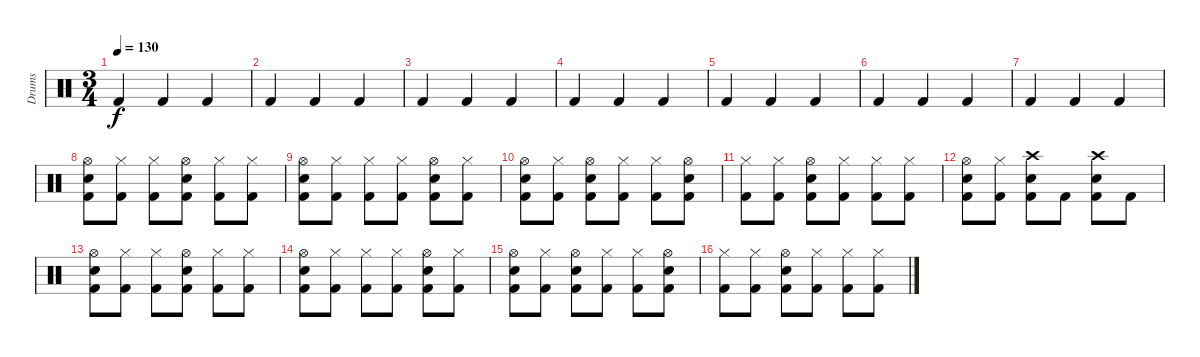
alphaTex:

\track ("Drums" "Drums") {instrument percussion}
\staff {score}
\articulation defaults
\ts (3 4)
\tempo 130
\clef neutral
\ks c "Kick (hit) 2".4{dy f} "Kick (hit) 2".4 "Kick (hit) 2".4
|
"Kick (hit) 2".4 "Kick (hit) 2".4 "Kick (hit) 2".4 |
"Kick (hit) 2".4 "Kick (hit) 2".4 "Kick (hit) 2".4 |
"Kick (hit) 2".4 "Kick (hit) 2".4 "Kick (hit) 2".4 |
"Kick (hit) 2".4 "Kick (hit) 2".4 "Kick (hit) 2".4 |
"Kick (hit) 2".4 "Kick (hit) 2".4 "Kick (hit) 2".4 |
"Kick (hit) 2".4 "Kick (hit) 2".4 "Kick (hit) 2".4 |
("Hi-Hat (open)" "Snare (hit) 2" "Kick (hit) 2").8 ("Hi-Hat (closed)" "Kick (hit) 2").8 ("Hi-Hat (closed)" "Kick (hit) 2").8 ("Hi-Hat (open)" "Snare (hit) 2" "Kick (hit) 2").8 ("Hi-Hat (closed)" "Kick (hit) 2").8 ("Hi-Hat (closed)" "Kick (hit) 2").8 |
("Hi-Hat (open)" "Snare (hit) 2" "Kick (hit) 2").8 ("Hi-Hat (closed)" "Kick (hit) 2").8 ("Hi-Hat (closed)" "Kick (hit) 2").8 ("Hi-Hat (closed)" "Kick (hit) 2").8 ("Hi-Hat (open)" "Snare (hit) 2" "Kick (hit) 2").8 ("Hi-Hat (closed)" "Kick (hit) 2").8 |
("Hi-Hat (open)" "Snare (hit) 2" "Kick (hit) 2").8 ("Hi-Hat (closed)" "Kick (hit) 2").8 ("Hi-Hat (open)" "Snare (hit) 2" "Kick (hit) 2").8 ("Hi-Hat (closed)" "Kick (hit) 2").8 ("Hi-Hat (closed)" "Kick (hit) 2").8 ("Hi-Hat (open)" "Snare (hit) 2" "Kick (hit) 2").8 |
("Hi-Hat (closed)" "Kick (hit) 2").8 ("Hi-Hat (closed)" "Kick (hit) 2").8 ("Hi-Hat (open)" "Snare (hit) 2" "Kick (hit) 2").8 ("Hi-Hat (closed)" "Kick (hit) 2").8 ("Hi-Hat (closed)" "Kick (hit) 2").8 ("Hi-Hat (closed)" "Kick (hit) 2").8 |
("Hi-Hat (open)" "Snare (hit) 2" "Kick (hit) 2").8 ("Hi-Hat (closed)" "Kick (hit) 2").8 ("Crash high (hit)" "Snare (hit) 2" "Kick (hit) 2").8 "Kick (hit) 2".8 ("Crash high (hit)" "Snare (hit) 2" "Kick (hit) 2").8 "Kick (hit) 2".8 |
("Hi-Hat (open)" "Snare (hit) 2" "Kick (hit) 2").8 ("Hi-Hat (closed)" "Kick (hit) 2").8 ("Hi-Hat (closed)" "Kick (hit) 2").8 ("Hi-Hat (open)" "Snare (hit) 2" "Kick (hit) 2").8 ("Hi-Hat (closed)" "Kick (hit) 2").8 ("Hi-Hat (closed)" "Kick (hit) 2").8 |
("Hi-Hat (open)" "Snare (hit) 2" "Kick (hit) 2").8 ("Hi-Hat (closed)" "Kick (hit) 2").8 ("Hi-Hat (closed)" "Kick (hit) 2").8 ("Hi-Hat (closed)" "Kick (hit) 2").8 ("Hi-Hat (open)" "Snare (hit) 2" "Kick (hit) 2").8 ("Hi-Hat (closed)" "Kick (hit) 2").8 |
("Hi-Hat (open)" "Snare (hit) 2" "Kick (hit) 2").8 ("Hi-Hat (closed)" "Kick (hit) 2").8 ("Hi-Hat (open)" "Snare (hit) 2" "Kick (hit) 2").8 ("Hi-Hat (closed)" "Kick (hit) 2").8 ("Hi-Hat (closed)" "Kick (hit) 2").8 ("Hi-Hat (open)" "Snare (hit) 2" "Kick (hit) 2").8 |
("Hi-Hat (closed)" "Kick (hit) 2").8 ("Hi-Hat (closed)" "Kick (hit) 2").8 ("Hi-Hat (open)" "Snare (hit) 2" "Kick (hit) 2").8 ("Hi-Hat (closed)" "Kick (hit) 2").8 ("Hi-Hat (closed)" "Kick (hit) 2").8 ("Hi-Hat (closed)" "Kick (hit) 2").8
